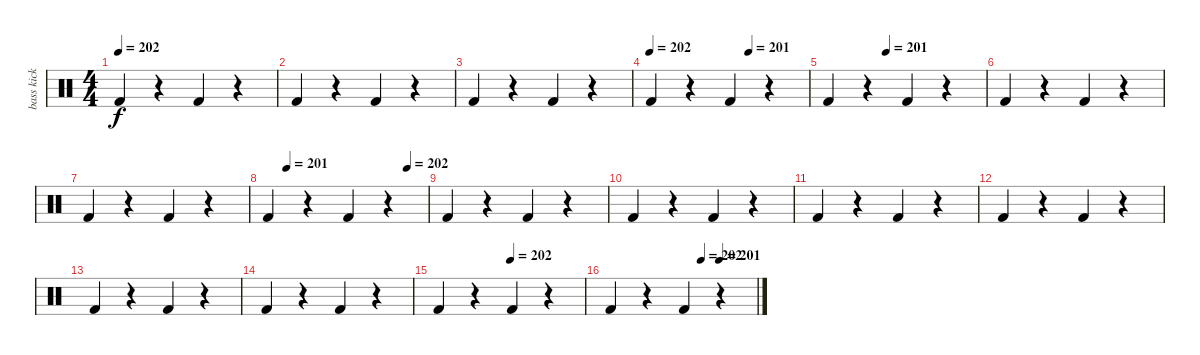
\track ("bass kick" "bass kick") {instrument percussion}
\staff {score}
\articulation defaults
\ts (4 4)
\tempo 202
\clef neutral
\ks c "Kick (hit) 2".4{dy f}
r.4 "Kick (hit) 2".4 r.4 |
"Kick (hit) 2".4 r.4 "Kick (hit) 2".4 r.4 |
"Kick (hit) 2".4 r.4 "Kick (hit) 2".4 r.4 |
\tempo 202
\tempo (201 0.625)
"Kick (hit) 2".4 r.4 "Kick (hit) 2".4 r.4 |
\tempo (201 0.375)
"Kick (hit) 2".4 r.4 "Kick (hit) 2".4 r.4 |
"Kick (hit) 2".4 r.4 "Kick (hit) 2".4 r.4 |
"Kick (hit) 2".4 r.4 "Kick (hit) 2".4 r.4 |
\tempo (201 0.125)
\tempo (202 0.875)
"Kick (hit) 2".4 r.4 "Kick (hit) 2".4 r.4 |
"Kick (hit) 2".4 r.4 "Kick (hit) 2".4 r.4 |
"Kick (hit) 2".4 r.4 "Kick (hit) 2".4 r.4 |
"Kick (hit) 2".4 r.4 "Kick (hit) 2".4 r.4 |
"Kick (hit) 2".4 r.4 "Kick (hit) 2".4 r.4 |
"Kick (hit) 2".4 r.4 "Kick (hit) 2".4 r.4 |
"Kick (hit) 2".4 r.4 "Kick (hit) 2".4 r.4 |
\tempo (202 0.5)
"Kick (hit) 2".4 r.4 "Kick (hit) 2".4 r.4 |
\tempo (202 0.625)
\tempo (201 0.75)
"Kick (hit) 2".4 r.4 "Kick (hit) 2".4 r.4
